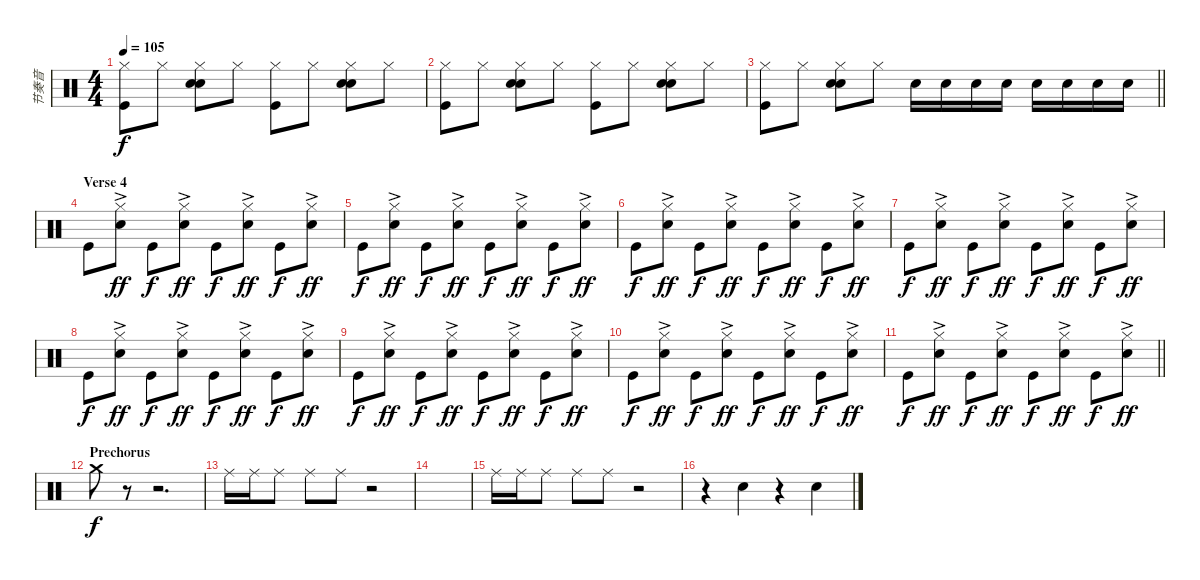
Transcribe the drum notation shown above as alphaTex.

\track ("节奏音" "节奏音") {instrument percussion}
\staff {score}
\articulation defaults
\ts (4 4)
\tempo 105
\clef neutral
\ks c
("Hi-Hat (closed)" "Kick (hit)").8{dy f} "Hi-Hat (closed)".8 ("Hi-Hat (closed)" "Hand Clap (hit)" "Snare (hit) 2").8 "Hi-Hat (closed)".8 ("Hi-Hat (closed)" "Kick (hit)").8 "Hi-Hat (closed)".8 ("Hi-Hat (closed)" "Hand Clap (hit)" "Snare (hit) 2").8 "Hi-Hat (closed)".8 |
("Hi-Hat (closed)" "Kick (hit)").8 "Hi-Hat (closed)".8 ("Hi-Hat (closed)" "Hand Clap (hit)" "Snare (hit) 2").8 "Hi-Hat (closed)".8 ("Hi-Hat (closed)" "Kick (hit)").8 "Hi-Hat (closed)".8 ("Hi-Hat (closed)" "Hand Clap (hit)" "Snare (hit) 2").8 "Hi-Hat (closed)".8 |
\barLineRight lightlight
("Hi-Hat (closed)" "Kick (hit)").8 "Hi-Hat (closed)".8 ("Hi-Hat (closed)" "Hand Clap (hit)" "Snare (hit) 2").8 "Hi-Hat (closed)".8 "Snare (hit) 2".16 "Snare (hit) 2".16 "Snare (hit) 2".16 "Snare (hit) 2".16 "Snare (hit) 2".16 "Snare (hit) 2".16 "Snare (hit) 2".16 "Snare (hit) 2".16 |
\section ("" "Verse 4")
"Kick (hit)".8 ("Hi-Hat (closed)"{ac} "Hand Clap (hit)").8{dy ff} "Kick (hit)".8{dy f} ("Hi-Hat (closed)"{ac} "Hand Clap (hit)").8{dy ff} "Kick (hit)".8{dy f} ("Hi-Hat (closed)"{ac} "Hand Clap (hit)").8{dy ff} "Kick (hit)".8{dy f} ("Hi-Hat (closed)"{ac} "Hand Clap (hit)").8{dy ff} |
"Kick (hit)".8{dy f} ("Hi-Hat (closed)"{ac} "Hand Clap (hit)").8{dy ff} "Kick (hit)".8{dy f} ("Hi-Hat (closed)"{ac} "Hand Clap (hit)").8{dy ff} "Kick (hit)".8{dy f} ("Hi-Hat (closed)"{ac} "Hand Clap (hit)").8{dy ff} "Kick (hit)".8{dy f} ("Hi-Hat (closed)"{ac} "Hand Clap (hit)").8{dy ff} |
"Kick (hit)".8{dy f} ("Hi-Hat (closed)"{ac} "Hand Clap (hit)").8{dy ff} "Kick (hit)".8{dy f} ("Hi-Hat (closed)"{ac} "Hand Clap (hit)").8{dy ff} "Kick (hit)".8{dy f} ("Hi-Hat (closed)"{ac} "Hand Clap (hit)").8{dy ff} "Kick (hit)".8{dy f} ("Hi-Hat (closed)"{ac} "Hand Clap (hit)").8{dy ff} |
"Kick (hit)".8{dy f} ("Hi-Hat (closed)"{ac} "Hand Clap (hit)").8{dy ff} "Kick (hit)".8{dy f} ("Hi-Hat (closed)"{ac} "Hand Clap (hit)").8{dy ff} "Kick (hit)".8{dy f} ("Hi-Hat (closed)"{ac} "Hand Clap (hit)").8{dy ff} "Kick (hit)".8{dy f} ("Hi-Hat (closed)"{ac} "Hand Clap (hit)").8{dy ff} |
"Kick (hit)".8{dy f} ("Hi-Hat (closed)"{ac} "Hand Clap (hit)").8{dy ff} "Kick (hit)".8{dy f} ("Hi-Hat (closed)"{ac} "Hand Clap (hit)").8{dy ff} "Kick (hit)".8{dy f} ("Hi-Hat (closed)"{ac} "Hand Clap (hit)").8{dy ff} "Kick (hit)".8{dy f} ("Hi-Hat (closed)"{ac} "Hand Clap (hit)").8{dy ff} |
"Kick (hit)".8{dy f} ("Hi-Hat (closed)"{ac} "Hand Clap (hit)").8{dy ff} "Kick (hit)".8{dy f} ("Hi-Hat (closed)"{ac} "Hand Clap (hit)").8{dy ff} "Kick (hit)".8{dy f} ("Hi-Hat (closed)"{ac} "Hand Clap (hit)").8{dy ff} "Kick (hit)".8{dy f} ("Hi-Hat (closed)"{ac} "Hand Clap (hit)").8{dy ff} |
"Kick (hit)".8{dy f} ("Hi-Hat (closed)"{ac} "Hand Clap (hit)").8{dy ff} "Kick (hit)".8{dy f} ("Hi-Hat (closed)"{ac} "Hand Clap (hit)").8{dy ff} "Kick (hit)".8{dy f} ("Hi-Hat (closed)"{ac} "Hand Clap (hit)").8{dy ff} "Kick (hit)".8{dy f} ("Hi-Hat (closed)"{ac} "Hand Clap (hit)").8{dy ff} |
\barLineRight lightlight "Kick (hit)".8{dy f}
("Hi-Hat (closed)"{ac} "Hand Clap (hit)").8{dy ff} "Kick (hit)".8{dy f} ("Hi-Hat (closed)"{ac} "Hand Clap (hit)").8{dy ff} "Kick (hit)".8{dy f} ("Hi-Hat (closed)"{ac} "Hand Clap (hit)").8{dy ff} "Kick (hit)".8{dy f} ("Hi-Hat (closed)"{ac} "Hand Clap (hit)").8{dy ff} |
\section ("" "Prechorus")
"Crash medium (hit)".8{dy f} r.8{volume 5} r.2{d} |
"Ride (middle)".16 "Ride (middle)".16 "Ride (middle)".8 "Ride (middle)".8 "Ride (middle)".8 r.2 |
|
"Ride (middle)".16 "Ride (middle)".16 "Ride (middle)".8 "Ride (middle)".8 "Ride (middle)".8 r.2 |
r.4 "Hand Clap (hit)".4 r.4 "Hand Clap (hit)".4
